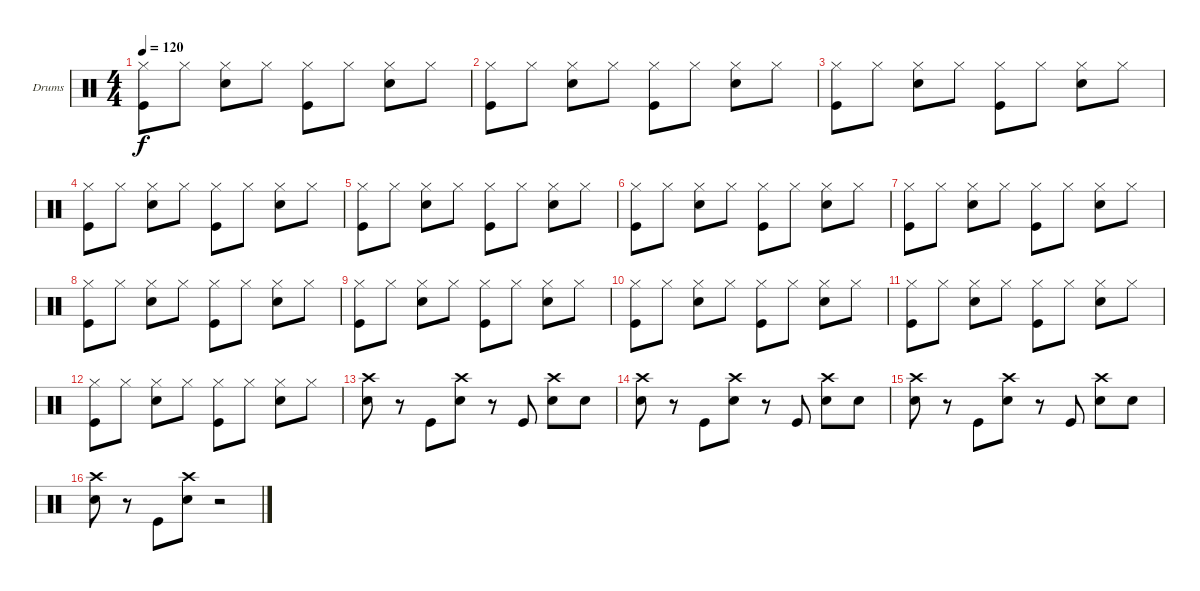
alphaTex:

\bracketExtendMode groupsimilarinstruments
\firstSystemTrackNameOrientation horizontal
\otherSystemsTrackNameOrientation horizontal
\track ("Drumkit" "Drums") {instrument percussion}
\staff {score}
\articulation defaults
\ts (4 4)
\tempo 120
\clef neutral
\ks c
("Hi-Hat (closed)" "Kick (hit)").8{dy f} "Hi-Hat (closed)".8 ("Hi-Hat (closed)" "Snare (hit) 2").8 "Hi-Hat (closed)".8 ("Hi-Hat (closed)" "Kick (hit)").8 "Hi-Hat (closed)".8 ("Hi-Hat (closed)" "Snare (hit) 2").8 "Hi-Hat (closed)".8 |
("Hi-Hat (closed)" "Kick (hit)").8 "Hi-Hat (closed)".8 ("Hi-Hat (closed)" "Snare (hit) 2").8 "Hi-Hat (closed)".8 ("Hi-Hat (closed)" "Kick (hit)").8 "Hi-Hat (closed)".8 ("Hi-Hat (closed)" "Snare (hit) 2").8 "Hi-Hat (closed)".8 |
("Hi-Hat (closed)" "Kick (hit)").8 "Hi-Hat (closed)".8 ("Hi-Hat (closed)" "Snare (hit) 2").8 "Hi-Hat (closed)".8 ("Hi-Hat (closed)" "Kick (hit)").8 "Hi-Hat (closed)".8 ("Hi-Hat (closed)" "Snare (hit) 2").8 "Hi-Hat (closed)".8 |
("Hi-Hat (closed)" "Kick (hit)").8 "Hi-Hat (closed)".8 ("Hi-Hat (closed)" "Snare (hit) 2").8 "Hi-Hat (closed)".8 ("Hi-Hat (closed)" "Kick (hit)").8 "Hi-Hat (closed)".8 ("Hi-Hat (closed)" "Snare (hit) 2").8 "Hi-Hat (closed)".8 |
("Hi-Hat (closed)" "Kick (hit)").8 "Hi-Hat (closed)".8 ("Hi-Hat (closed)" "Snare (hit) 2").8 "Hi-Hat (closed)".8 ("Hi-Hat (closed)" "Kick (hit)").8 "Hi-Hat (closed)".8 ("Hi-Hat (closed)" "Snare (hit) 2").8 "Hi-Hat (closed)".8 |
("Hi-Hat (closed)" "Kick (hit)").8 "Hi-Hat (closed)".8 ("Hi-Hat (closed)" "Snare (hit) 2").8 "Hi-Hat (closed)".8 ("Hi-Hat (closed)" "Kick (hit)").8 "Hi-Hat (closed)".8 ("Hi-Hat (closed)" "Snare (hit) 2").8 "Hi-Hat (closed)".8 |
("Hi-Hat (closed)" "Kick (hit)").8 "Hi-Hat (closed)".8 ("Hi-Hat (closed)" "Snare (hit) 2").8 "Hi-Hat (closed)".8 ("Hi-Hat (closed)" "Kick (hit)").8 "Hi-Hat (closed)".8 ("Hi-Hat (closed)" "Snare (hit) 2").8 "Hi-Hat (closed)".8 |
("Hi-Hat (closed)" "Kick (hit)").8 "Hi-Hat (closed)".8 ("Hi-Hat (closed)" "Snare (hit) 2").8 "Hi-Hat (closed)".8 ("Hi-Hat (closed)" "Kick (hit)").8 "Hi-Hat (closed)".8 ("Hi-Hat (closed)" "Snare (hit) 2").8 "Hi-Hat (closed)".8 |
("Hi-Hat (closed)" "Kick (hit)").8 "Hi-Hat (closed)".8 ("Hi-Hat (closed)" "Snare (hit) 2").8 "Hi-Hat (closed)".8 ("Hi-Hat (closed)" "Kick (hit)").8 "Hi-Hat (closed)".8 ("Hi-Hat (closed)" "Snare (hit) 2").8 "Hi-Hat (closed)".8 |
("Hi-Hat (closed)" "Kick (hit)").8 "Hi-Hat (closed)".8 ("Hi-Hat (closed)" "Snare (hit) 2").8 "Hi-Hat (closed)".8 ("Hi-Hat (closed)" "Kick (hit)").8 "Hi-Hat (closed)".8 ("Hi-Hat (closed)" "Snare (hit) 2").8 "Hi-Hat (closed)".8 |
("Hi-Hat (closed)" "Kick (hit)").8 "Hi-Hat (closed)".8 ("Hi-Hat (closed)" "Snare (hit) 2").8 "Hi-Hat (closed)".8 ("Hi-Hat (closed)" "Kick (hit)").8 "Hi-Hat (closed)".8 ("Hi-Hat (closed)" "Snare (hit) 2").8 "Hi-Hat (closed)".8 |
("Hi-Hat (closed)" "Kick (hit)").8 "Hi-Hat (closed)".8 ("Hi-Hat (closed)" "Snare (hit) 2").8 "Hi-Hat (closed)".8 ("Hi-Hat (closed)" "Kick (hit)").8 "Hi-Hat (closed)".8 ("Hi-Hat (closed)" "Snare (hit) 2").8 "Hi-Hat (closed)".8 |
("Crash high (hit)" "Snare (hit) 2").8 r.8 "Kick (hit)".8 ("Crash high (hit)" "Snare (hit) 2").8 r.8 "Kick (hit)".8 ("Crash high (hit)" "Snare (hit) 2").8 "Snare (hit) 2".8 |
("Crash high (hit)" "Snare (hit) 2").8 r.8 "Kick (hit)".8 ("Crash high (hit)" "Snare (hit) 2").8 r.8 "Kick (hit)".8 ("Crash high (hit)" "Snare (hit) 2").8 "Snare (hit) 2".8 |
("Crash high (hit)" "Snare (hit) 2").8 r.8 "Kick (hit)".8 ("Crash high (hit)" "Snare (hit) 2").8 r.8 "Kick (hit)".8 ("Crash high (hit)" "Snare (hit) 2").8 "Snare (hit) 2".8 |
("Crash high (hit)" "Snare (hit) 2").8 r.8 "Kick (hit)".8 ("Crash high (hit)" "Snare (hit) 2").8 r.2
